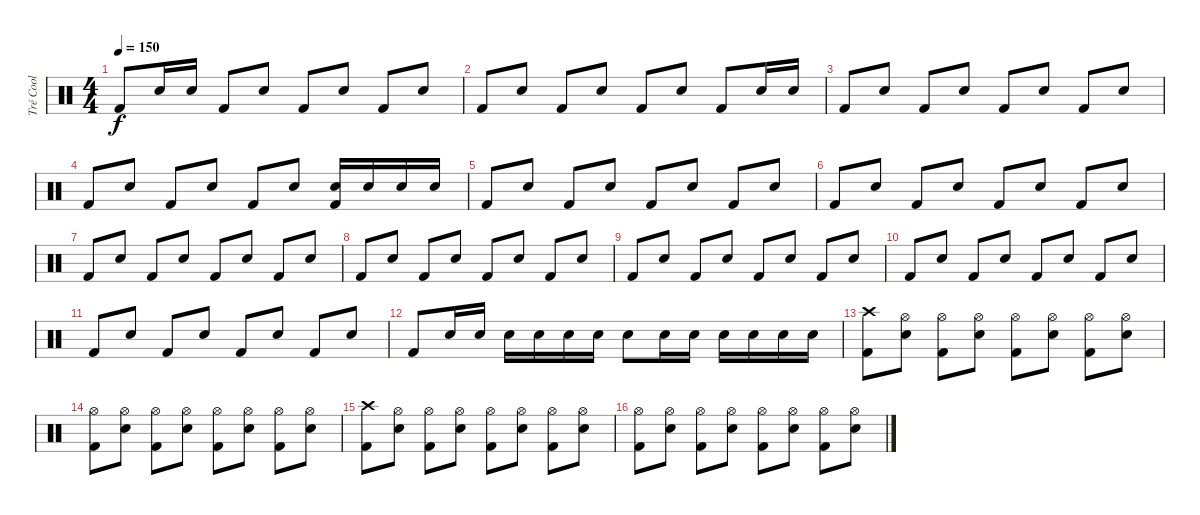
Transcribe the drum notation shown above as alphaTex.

\track ("Tré Cool" "Tré Cool") {instrument percussion}
\staff {score}
\articulation defaults
\ts (4 4)
\tempo 150
\clef neutral
\ks c "Kick (hit) 2".8{dy f} "Electric Snare (hit)".16 "Electric Snare (hit)".16 "Kick (hit) 2".8 "Electric Snare (hit)".8 "Kick (hit) 2".8 "Electric Snare (hit)".8 "Kick (hit) 2".8 "Electric Snare (hit)".8
|
"Kick (hit) 2".8 "Electric Snare (hit)".8 "Kick (hit) 2".8 "Electric Snare (hit)".8 "Kick (hit) 2".8 "Electric Snare (hit)".8 "Kick (hit) 2".8 "Electric Snare (hit)".16 "Electric Snare (hit)".16 |
"Kick (hit) 2".8 "Electric Snare (hit)".8 "Kick (hit) 2".8 "Electric Snare (hit)".8 "Kick (hit) 2".8 "Electric Snare (hit)".8 "Kick (hit) 2".8 "Electric Snare (hit)".8 |
"Kick (hit) 2".8 "Electric Snare (hit)".8 "Kick (hit) 2".8 "Electric Snare (hit)".8 "Kick (hit) 2".8 "Electric Snare (hit)".8 ("Electric Snare (hit)" "Kick (hit) 2").16 "Electric Snare (hit)".16 "Electric Snare (hit)".16 "Electric Snare (hit)".16 |
"Kick (hit) 2".8 "Electric Snare (hit)".8 "Kick (hit) 2".8 "Electric Snare (hit)".8 "Kick (hit) 2".8 "Electric Snare (hit)".8 "Kick (hit) 2".8 "Electric Snare (hit)".8 |
"Kick (hit) 2".8 "Electric Snare (hit)".8 "Kick (hit) 2".8 "Electric Snare (hit)".8 "Kick (hit) 2".8 "Electric Snare (hit)".8 "Kick (hit) 2".8 "Electric Snare (hit)".8 |
"Kick (hit) 2".8 "Electric Snare (hit)".8 "Kick (hit) 2".8 "Electric Snare (hit)".8 "Kick (hit) 2".8 "Electric Snare (hit)".8 "Kick (hit) 2".8 "Electric Snare (hit)".8 |
"Kick (hit) 2".8 "Electric Snare (hit)".8 "Kick (hit) 2".8 "Electric Snare (hit)".8 "Kick (hit) 2".8 "Electric Snare (hit)".8 "Kick (hit) 2".8 "Electric Snare (hit)".8 |
"Kick (hit) 2".8 "Electric Snare (hit)".8 "Kick (hit) 2".8 "Electric Snare (hit)".8 "Kick (hit) 2".8 "Electric Snare (hit)".8 "Kick (hit) 2".8 "Electric Snare (hit)".8 |
"Kick (hit) 2".8 "Electric Snare (hit)".8 "Kick (hit) 2".8 "Electric Snare (hit)".8 "Kick (hit) 2".8 "Electric Snare (hit)".8 "Kick (hit) 2".8 "Electric Snare (hit)".8 |
"Kick (hit) 2".8 "Electric Snare (hit)".8 "Kick (hit) 2".8 "Electric Snare (hit)".8 "Kick (hit) 2".8 "Electric Snare (hit)".8 "Kick (hit) 2".8 "Electric Snare (hit)".8 |
"Kick (hit) 2".8 "Electric Snare (hit)".16 "Electric Snare (hit)".16 "Electric Snare (hit)".16 "Electric Snare (hit)".16 "Electric Snare (hit)".16 "Electric Snare (hit)".16 "Electric Snare (hit)".8 "Electric Snare (hit)".16 "Electric Snare (hit)".16 "Electric Snare (hit)".16 "Electric Snare (hit)".16 "Electric Snare (hit)".16 "Electric Snare (hit)".16 |
("Crash high (hit)" "Kick (hit) 2").8 ("Hi-Hat (open)" "Electric Snare (hit)").8 ("Hi-Hat (open)" "Kick (hit) 2").8 ("Hi-Hat (open)" "Electric Snare (hit)").8 ("Hi-Hat (open)" "Kick (hit) 2").8 ("Hi-Hat (open)" "Electric Snare (hit)").8 ("Hi-Hat (open)" "Kick (hit) 2").8 ("Hi-Hat (open)" "Electric Snare (hit)").8 |
("Hi-Hat (open)" "Kick (hit) 2").8 ("Hi-Hat (open)" "Electric Snare (hit)").8 ("Hi-Hat (open)" "Kick (hit) 2").8 ("Hi-Hat (open)" "Electric Snare (hit)").8 ("Hi-Hat (open)" "Kick (hit) 2").8 ("Hi-Hat (open)" "Electric Snare (hit)").8 ("Hi-Hat (open)" "Kick (hit) 2").8 ("Hi-Hat (open)" "Electric Snare (hit)").8 |
("Crash high (hit)" "Kick (hit) 2").8 ("Hi-Hat (open)" "Electric Snare (hit)").8 ("Hi-Hat (open)" "Kick (hit) 2").8 ("Hi-Hat (open)" "Electric Snare (hit)").8 ("Hi-Hat (open)" "Kick (hit) 2").8 ("Hi-Hat (open)" "Electric Snare (hit)").8 ("Hi-Hat (open)" "Kick (hit) 2").8 ("Hi-Hat (open)" "Electric Snare (hit)").8 |
("Hi-Hat (open)" "Kick (hit) 2").8 ("Hi-Hat (open)" "Electric Snare (hit)").8 ("Hi-Hat (open)" "Kick (hit) 2").8 ("Hi-Hat (open)" "Electric Snare (hit)").8 ("Hi-Hat (open)" "Kick (hit) 2").8 ("Hi-Hat (open)" "Electric Snare (hit)").8 ("Hi-Hat (open)" "Kick (hit) 2").8 ("Hi-Hat (open)" "Electric Snare (hit)").8
